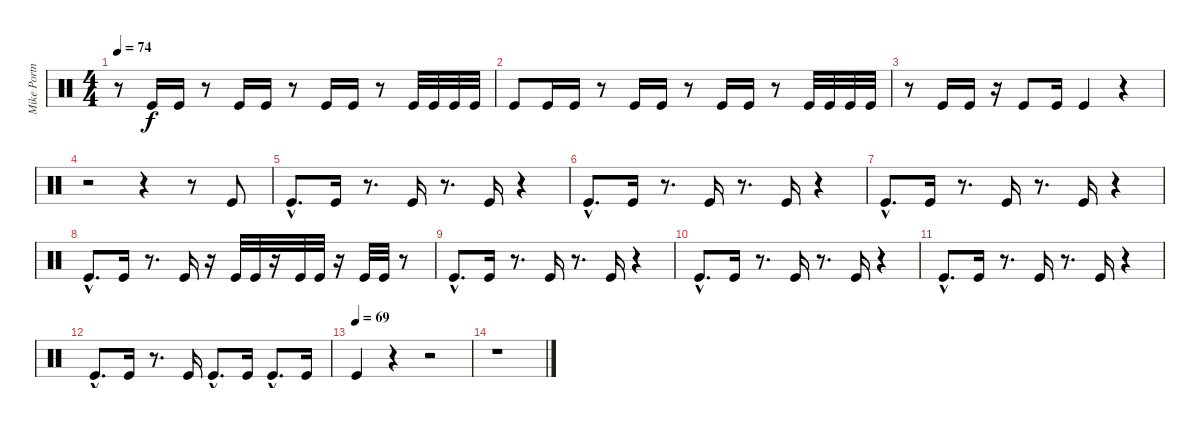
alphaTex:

\track ("Mike Portnoy" "Mike Portn") {instrument percussion}
\staff {score}
\articulation defaults
\ts (4 4)
\tempo 74
\clef neutral
\ks c
r.8{dy f} "Kick (hit)".16 "Kick (hit)".16 r.8 "Kick (hit)".16 "Kick (hit)".16 r.8 "Kick (hit)".16 "Kick (hit)".16 r.8 "Kick (hit)".32 "Kick (hit)".32 "Kick (hit)".32 "Kick (hit)".32 |
"Kick (hit)".8 "Kick (hit)".16 "Kick (hit)".16 r.8 "Kick (hit)".16 "Kick (hit)".16 r.8 "Kick (hit)".16 "Kick (hit)".16 r.8 "Kick (hit)".32 "Kick (hit)".32 "Kick (hit)".32 "Kick (hit)".32 |
r.8 "Kick (hit)".16 "Kick (hit)".16 r.16 "Kick (hit)".8 "Kick (hit)".16 "Kick (hit)".4 r.4 |
r.2 r.4 r.8 "Kick (hit)".8 |
"Kick (hit)"{hac}.8{d} "Kick (hit)".16 r.8{d} "Kick (hit)".16 r.8{d} "Kick (hit)".16 r.4 |
"Kick (hit)"{hac}.8{d} "Kick (hit)".16 r.8{d} "Kick (hit)".16 r.8{d} "Kick (hit)".16 r.4 |
"Kick (hit)"{hac}.8{d} "Kick (hit)".16 r.8{d} "Kick (hit)".16 r.8{d} "Kick (hit)".16 r.4 |
"Kick (hit)"{hac}.8{d} "Kick (hit)".16 r.8{d} "Kick (hit)".16 r.16 "Kick (hit)".32 "Kick (hit)".32 r.16 "Kick (hit)".32 "Kick (hit)".32 r.16 "Kick (hit)".32 "Kick (hit)".32 r.8 |
"Kick (hit)"{hac}.8{d} "Kick (hit)".16 r.8{d} "Kick (hit)".16 r.8{d} "Kick (hit)".16 r.4 |
"Kick (hit)"{hac}.8{d} "Kick (hit)".16 r.8{d} "Kick (hit)".16 r.8{d} "Kick (hit)".16 r.4 |
"Kick (hit)"{hac}.8{d} "Kick (hit)".16 r.8{d} "Kick (hit)".16 r.8{d} "Kick (hit)".16 r.4 |
"Kick (hit)"{hac}.8{d} "Kick (hit)".16 r.8{d} "Kick (hit)".16 "Kick (hit)"{hac}.8{d} "Kick (hit)".16 "Kick (hit)"{hac}.8{d} "Kick (hit)".16 |
\tempo (69)
"Kick (hit)".4 r.4 r.2 |
r.1
